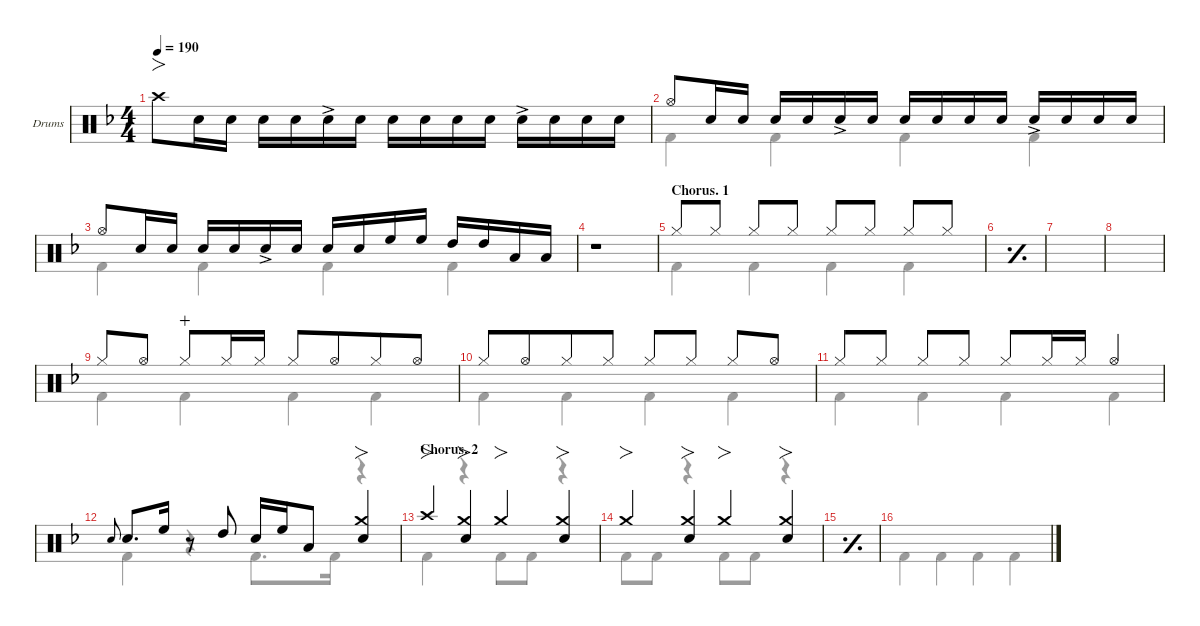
\defaultSystemsLayout 4
\hideDynamics
\bracketExtendMode nobrackets
\firstSystemTrackNameOrientation horizontal
\track ("Drums" "Drums") {defaultSystemsLayout 4 instrument percussion}
\staff {score}
\articulation defaults
\voice
\ts (4 4)
\tempo 190
\clef neutral
\scale
0.267605
\ks dminor "Crash high (hit)"{acc forcenatural}.8{fo dy f} "Snare (hit) 2"{acc forcenatural}.16{dy mf} "Snare (hit) 2"{acc forcenatural}.16{dy mp beam split} "Snare (hit) 2"{acc forcenatural}.16{dy f} "Snare (hit) 2"{acc forcenatural}.16{dy mp} "Snare (hit) 2"{ac acc forcenatural}.16{dy f} "Snare (hit) 2"{acc forcenatural}.16{dy mp} "Snare (hit) 2"{acc forcenatural}.16{dy f} "Snare (hit) 2"{acc forcenatural}.16{dy mp} "Snare (hit) 2"{acc forcenatural}.16{dy f} "Snare (hit) 2"{acc forcenatural}.16{dy mp beam split} "Snare (hit) 2"{ac acc forcenatural}.16{dy f} "Snare (hit) 2"{acc forcenatural}.16{dy mp} "Snare (hit) 2"{acc forcenatural}.16{dy f} "Snare (hit) 2"{acc forcenatural}.16{dy mp}
|
\scale
0.243474 "Hi-Hat (open)"{acc forcenatural}.8{dy f} "Snare (hit) 2"{acc forcenatural}.16{dy mf} "Snare (hit) 2"{acc forcenatural}.16{dy mp beam split} "Snare (hit) 2"{acc forcenatural}.16{dy f} "Snare (hit) 2"{acc forcenatural}.16{dy mp} "Snare (hit) 2"{ac acc forcenatural}.16{dy f} "Snare (hit) 2"{acc forcenatural}.16{dy mp} "Snare (hit) 2"{acc forcenatural}.16{dy f} "Snare (hit) 2"{acc forcenatural}.16{dy mp} "Snare (hit) 2"{acc forcenatural}.16{dy f} "Snare (hit) 2"{acc forcenatural}.16{dy mp beam split} "Snare (hit) 2"{ac acc forcenatural}.16{dy f} "Snare (hit) 2"{acc forcenatural}.16{dy mp} "Snare (hit) 2"{acc forcenatural}.16{dy f} "Snare (hit) 2"{acc forcenatural}.16{dy mp} |
\scale
0.244789 "Hi-Hat (open)"{acc forcenatural}.8{dy f} "Snare (hit) 2"{acc forcenatural}.16{dy mf} "Snare (hit) 2"{acc forcenatural}.16{dy mp beam split} "Snare (hit) 2"{acc forcenatural}.16{dy f} "Snare (hit) 2"{acc forcenatural}.16{dy mp} "Snare (hit) 2"{ac acc forcenatural}.16{dy f} "Snare (hit) 2"{acc forcenatural}.16{dy mp} "Snare (hit) 2"{acc forcenatural}.16{dy f} "Snare (hit) 2"{acc forcenatural}.16{dy mp} "High Floor Tom (hit)"{acc forcenatural}.16{dy f} "High Floor Tom (hit)"{acc forcenatural}.16{beam split} "High Tom (hit)"{acc forcenatural}.16 "High Tom (hit)"{acc forcenatural}.16 "Low Tom (hit)"{acc forcenatural}.16 "Low Tom (hit)"{acc forcenatural}.16 |
\scale
0.244132 r.1 |
\section ("" "Chorus. 1")
\scale
0.267605 "Hi-Hat (closed)"{acc forcenatural}.8 "Hi-Hat (closed)"{acc forcenatural}.8{dy mf} "Hi-Hat (closed)"{acc forcenatural}.8{dy f} "Hi-Hat (closed)"{acc forcenatural}.8{dy mf} "Hi-Hat (closed)"{acc forcenatural}.8{dy f} "Hi-Hat (closed)"{acc forcenatural}.8{dy mf} "Hi-Hat (closed)"{acc forcenatural}.8{dy f} "Hi-Hat (closed)"{acc forcenatural}.8{dy mf} |
\simile simple
\scale
0.243474 |
\scale
0.244789 |
\scale
0.244132 |
\simile none
\scale
0.267605 "Hi-Hat (closed)"{acc forcenatural}.8{dy f} "Hi-Hat (open)"{acc forcenatural}.8{beam split} "Hi-Hat (closed)"{acc forcenatural}.8{dy mp wahc} "Hi-Hat (closed)"{acc forcenatural}.16{dy f} "Hi-Hat (closed)"{acc forcenatural}.16{dy mf} "Hi-Hat (closed)"{acc forcenatural}.8{dy f beam merge} "Hi-Hat (open)"{acc forcenatural}.8{beam merge} "Hi-Hat (closed)"{acc forcenatural}.8{beam merge} "Hi-Hat (open)"{acc forcenatural}.8{beam split} |
\scale
0.244132 "Hi-Hat (closed)"{acc forcenatural}.8 "Hi-Hat (open)"{acc forcenatural}.8{beam merge} "Hi-Hat (closed)"{acc forcenatural}.8{beam merge} "Hi-Hat (closed)"{acc forcenatural}.8{dy mf} "Hi-Hat (closed)"{acc forcenatural}.8{dy f} "Hi-Hat (closed)"{acc forcenatural}.8{dy mf} "Hi-Hat (closed)"{acc forcenatural}.8{dy f beam merge} "Hi-Hat (open)"{acc forcenatural}.8{beam split} |
\scale
0.244132 "Hi-Hat (closed)"{acc forcenatural}.8 "Hi-Hat (closed)"{acc forcenatural}.8{dy mf} "Hi-Hat (closed)"{acc forcenatural}.8{dy f} "Hi-Hat (closed)"{acc forcenatural}.8{dy mf} "Hi-Hat (closed)"{acc forcenatural}.8{dy f} "Hi-Hat (closed)"{acc forcenatural}.16 "Hi-Hat (closed)"{acc forcenatural}.16{dy mf} "Hi-Hat (open)"{acc forcenatural}.4{dy f} |
\scale
0.244132 "Snare (hit) 2"{acc forcenatural}.8{gr onbeat} "Snare (hit) 2"{acc forcenatural}.8{d} "High Floor Tom (hit)"{acc forcenatural}.16{beam split} r.8{beam split} "High Tom (hit)"{acc forcenatural}.8 "Snare (hit) 2"{acc forcenatural}.16 "High Floor Tom (hit)"{acc forcenatural}.16 "Low Tom (hit)"{acc forcenatural}.8 ("Snare (hit) 2"{acc forcenatural} "Crash medium (hit)"{acc forcenatural}).4{fo} |
\section ("" "Chorus. 2")
\scale
0.267605 "Crash high (hit)"{acc forcenatural}.4{fo} ("Snare (hit) 2"{acc forcenatural} "Crash medium (hit)"{acc forcenatural}).4{fo} "Crash medium (hit)"{acc forcenatural}.4{fo} ("Crash medium (hit)"{acc forcenatural} "Snare (hit) 2"{acc forcenatural}).4{fo} |
\scale
0.244132 "Crash medium (hit)"{acc forcenatural}.4{fo} ("Crash medium (hit)"{acc forcenatural} "Snare (hit) 2"{acc forcenatural}).4{fo} "Crash medium (hit)"{acc forcenatural}.4{fo} ("Crash medium (hit)"{acc forcenatural} "Snare (hit) 2"{acc forcenatural}).4{fo} |
\simile simple
\scale
0.244132 |
\scale
0.244132
\voice
\clef neutral
\ottava regular
\simile none
\scale
0.267605
\ks dminor "Kick (hit) 2"{acc forcenatural}.4{dy f} "Kick (hit) 2"{acc forcenatural}.4 "Kick (hit) 2"{acc forcenatural}.4 "Kick (hit) 2"{acc forcenatural}.4
|
\scale
0.243474 "Kick (hit) 2"{acc forcenatural}.4 "Kick (hit) 2"{acc forcenatural}.4 "Kick (hit) 2"{acc forcenatural}.4 "Kick (hit) 2"{acc forcenatural}.4 |
\scale
0.244789 "Kick (hit) 2"{acc forcenatural}.4 "Kick (hit) 2"{acc forcenatural}.4 "Kick (hit) 2"{acc forcenatural}.4 "Kick (hit) 2"{acc forcenatural}.4 |
\scale
0.244132 r.1 |
\scale
0.267605 "Kick (hit) 2"{acc forcenatural}.4 "Kick (hit) 2"{acc forcenatural}.4 "Kick (hit) 2"{acc forcenatural}.4 "Kick (hit) 2"{acc forcenatural}.4 |
\simile simple
\scale
0.243474 |
\scale
0.244789 |
\scale
0.244132 |
\simile none
\scale
0.267605 "Kick (hit) 2"{acc forcenatural}.4 "Kick (hit) 2"{acc forcenatural}.4 "Kick (hit) 2"{acc forcenatural}.4 "Kick (hit) 2"{acc forcenatural}.4 |
\scale
0.244132 "Kick (hit) 2"{acc forcenatural}.4 "Kick (hit) 2"{acc forcenatural}.4 "Kick (hit) 2"{acc forcenatural}.4 "Kick (hit) 2"{acc forcenatural}.4 |
\scale
0.244132 "Kick (hit) 2"{acc forcenatural}.4 "Kick (hit) 2"{acc forcenatural}.4 "Kick (hit) 2"{acc forcenatural}.4 "Kick (hit) 2"{acc forcenatural}.4 |
\scale
0.244132 "Kick (hit) 2"{acc forcenatural}.4 r.4 "Kick (hit) 2"{acc forcenatural}.8{d} "Kick (hit) 2"{acc forcenatural}.16 r.4 |
\scale
0.267605 "Kick (hit) 2"{acc forcenatural}.4 r.4 "Kick (hit) 2"{acc forcenatural}.8 "Kick (hit) 2"{acc forcenatural}.8 r.4 |
\scale
0.244132 "Kick (hit) 2"{acc forcenatural}.8 "Kick (hit) 2"{acc forcenatural}.8 r.4 "Kick (hit) 2"{acc forcenatural}.8 "Kick (hit) 2"{acc forcenatural}.8 r.4 |
\simile simple
\scale
0.244132 |
\scale
0.244132
